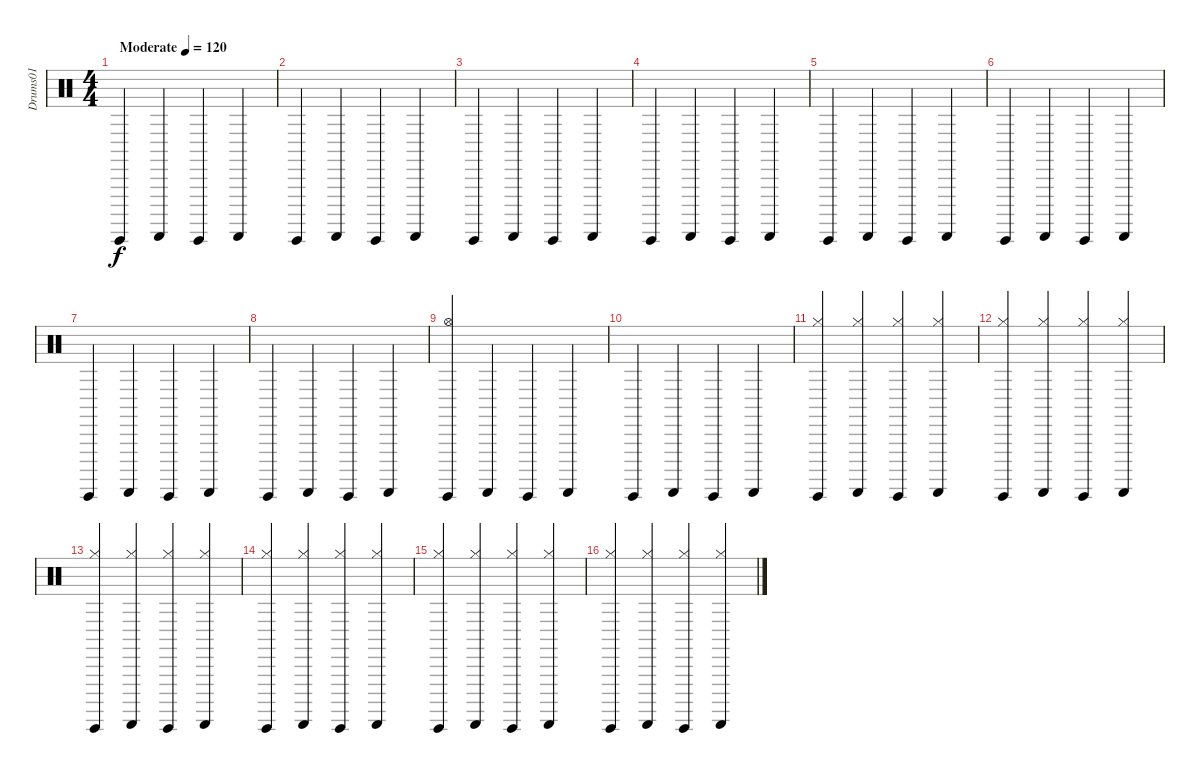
\track ("Drums01" "Drums01") {instrument percussion}
\staff {score}
\articulation defaults
\ts (4 4)
\tempo (120 "Moderate")
\clef neutral
\ks c "Guiro (hit)".4{dy f} "Guiro (scrap-return)".4 "Guiro (hit)".4 "Guiro (scrap-return)".4
|
"Guiro (hit)".4 "Guiro (scrap-return)".4 "Guiro (hit)".4 "Guiro (scrap-return)".4 |
"Guiro (hit)".4 "Guiro (scrap-return)".4 "Guiro (hit)".4 "Guiro (scrap-return)".4 |
"Guiro (hit)".4 "Guiro (scrap-return)".4 "Guiro (hit)".4 "Guiro (scrap-return)".4 |
"Guiro (hit)".4 "Guiro (scrap-return)".4 "Guiro (hit)".4 "Guiro (scrap-return)".4 |
"Guiro (hit)".4 "Guiro (scrap-return)".4 "Guiro (hit)".4 "Guiro (scrap-return)".4 |
"Guiro (hit)".4 "Guiro (scrap-return)".4 "Guiro (hit)".4 "Guiro (scrap-return)".4 |
"Guiro (hit)".4 "Guiro (scrap-return)".4 "Guiro (hit)".4 "Guiro (scrap-return)".4 |
("Guiro (hit)" "Hi-Hat (open)").4 "Guiro (scrap-return)".4 "Guiro (hit)".4 "Guiro (scrap-return)".4 |
"Guiro (hit)".4 "Guiro (scrap-return)".4 "Guiro (hit)".4 "Guiro (scrap-return)".4 |
("Guiro (hit)" "Hi-Hat (closed)").4 ("Guiro (scrap-return)" "Hi-Hat (closed)").4 ("Guiro (hit)" "Hi-Hat (closed)").4 ("Guiro (scrap-return)" "Hi-Hat (closed)").4 |
("Guiro (hit)" "Hi-Hat (closed)").4 ("Guiro (scrap-return)" "Hi-Hat (closed)").4 ("Guiro (hit)" "Hi-Hat (closed)").4 ("Guiro (scrap-return)" "Hi-Hat (closed)").4 |
("Guiro (hit)" "Hi-Hat (closed)").4 ("Guiro (scrap-return)" "Hi-Hat (closed)").4 ("Guiro (hit)" "Hi-Hat (closed)").4 ("Guiro (scrap-return)" "Hi-Hat (closed)").4 |
("Guiro (hit)" "Hi-Hat (closed)").4 ("Guiro (scrap-return)" "Hi-Hat (closed)").4 ("Guiro (hit)" "Hi-Hat (closed)").4 ("Guiro (scrap-return)" "Hi-Hat (closed)").4 |
("Guiro (hit)" "Hi-Hat (closed)").4 ("Guiro (scrap-return)" "Hi-Hat (closed)").4 ("Guiro (hit)" "Hi-Hat (closed)").4 ("Guiro (scrap-return)" "Hi-Hat (closed)").4 |
("Guiro (hit)" "Hi-Hat (closed)").4 ("Guiro (scrap-return)" "Hi-Hat (closed)").4 ("Guiro (hit)" "Hi-Hat (closed)").4 ("Guiro (scrap-return)" "Hi-Hat (closed)").4
